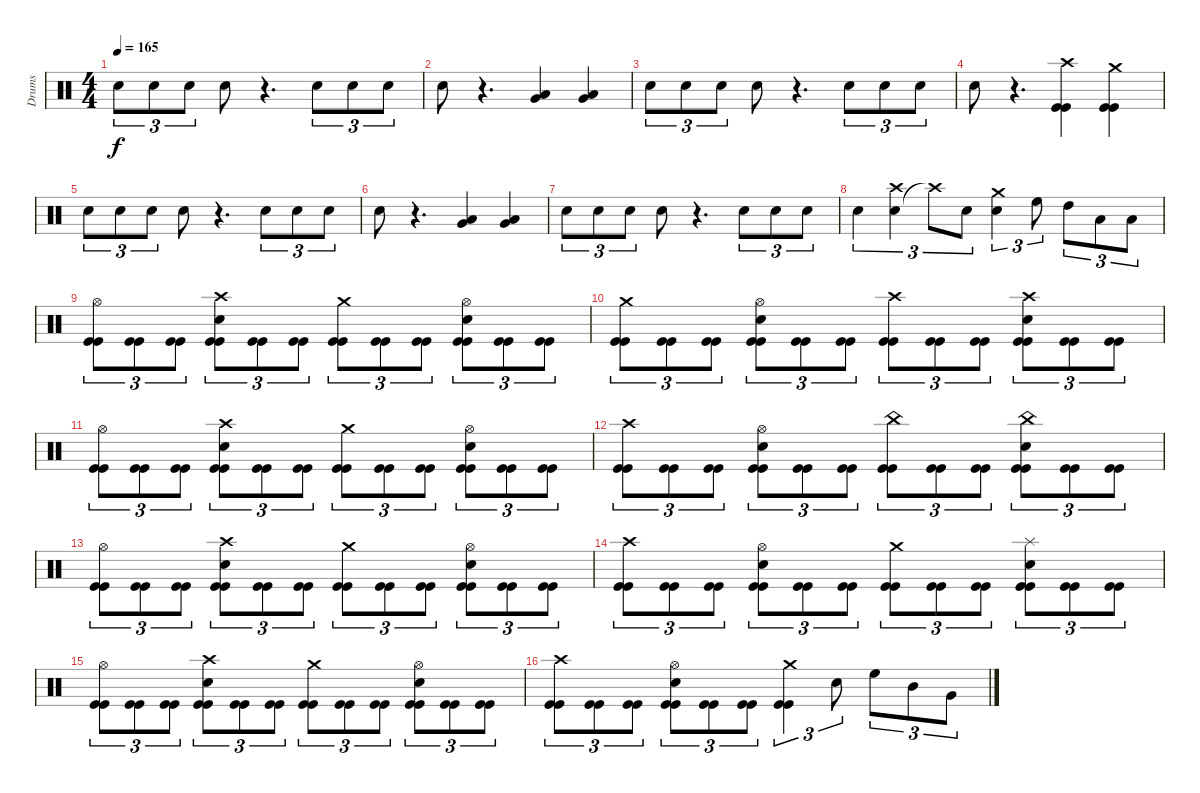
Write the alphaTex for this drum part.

\track ("Drums" "Drums") {instrument percussion}
\staff {score}
\articulation defaults
\ts (4 4)
\tempo 165
\clef neutral
\ks c "Snare (hit) 2".8{tu (3 2) dy f} "Snare (hit) 2".8{tu (3 2)} "Snare (hit) 2".8{tu (3 2)} "Snare (hit) 2".8
r.4{d} "Snare (hit) 2".8{tu (3 2)} "Snare (hit) 2".8{tu (3 2)} "Snare (hit) 2".8{tu (3 2)} |
"Snare (hit) 2".8 r.4{d} ("Low Floor Tom (hit)" "Very Low Tom (hit)").4 ("Very Low Tom (hit)" "Low Floor Tom (hit)").4 |
"Snare (hit) 2".8{tu (3 2)} "Snare (hit) 2".8{tu (3 2)} "Snare (hit) 2".8{tu (3 2)} "Snare (hit) 2".8 r.4{d} "Snare (hit) 2".8{tu (3 2)} "Snare (hit) 2".8{tu (3 2)} "Snare (hit) 2".8{tu (3 2)} |
"Snare (hit) 2".8 r.4{d} ("Kick (hit)" "Kick (hit)" "Crash high (hit)").4 ("Kick (hit)" "Kick (hit)" "Crash medium (hit)").4 |
"Snare (hit) 2".8{tu (3 2)} "Snare (hit) 2".8{tu (3 2)} "Snare (hit) 2".8{tu (3 2)} "Snare (hit) 2".8 r.4{d} "Snare (hit) 2".8{tu (3 2)} "Snare (hit) 2".8{tu (3 2)} "Snare (hit) 2".8{tu (3 2)} |
"Snare (hit) 2".8 r.4{d} ("Low Floor Tom (hit)" "Very Low Tom (hit)").4 ("Very Low Tom (hit)" "Low Floor Tom (hit)").4 |
"Snare (hit) 2".8{tu (3 2)} "Snare (hit) 2".8{tu (3 2)} "Snare (hit) 2".8{tu (3 2)} "Snare (hit) 2".8 r.4{d} "Snare (hit) 2".8{tu (3 2)} "Snare (hit) 2".8{tu (3 2)} "Snare (hit) 2".8{tu (3 2)} |
"Snare (hit) 2".4{tu (3 2)} ("Snare (hit) 2" "Crash high (hit)").4{tu (3 2)} "Crash high (hit)"{t}.8{tu (3 2)} "Snare (hit) 2".8{tu (3 2)} ("Snare (hit) 2" "Crash medium (hit)").4{tu (3 2)} "High Floor Tom (hit)".8{tu (3 2)} "High Tom (hit)".8{tu (3 2)} "Low Tom (hit)".8{tu (3 2)} "Low Floor Tom (hit)".8{tu (3 2)} |
("Kick (hit)" "Kick (hit)" "Hi-Hat (open)").8{tu (3 2)} ("Kick (hit)" "Kick (hit)").8{tu (3 2)} ("Kick (hit)" "Kick (hit)").8{tu (3 2)} ("Kick (hit)" "Kick (hit)" "Snare (hit) 2" "Crash high (hit)").8{tu (3 2)} ("Kick (hit)" "Kick (hit)").8{tu (3 2)} ("Kick (hit)" "Kick (hit)").8{tu (3 2)} ("Kick (hit)" "Kick (hit)" "Crash medium (hit)").8{tu (3 2)} ("Kick (hit)" "Kick (hit)").8{tu (3 2)} ("Kick (hit)" "Kick (hit)").8{tu (3 2)} ("Kick (hit)" "Kick (hit)" "Snare (hit) 2" "Hi-Hat (open)").8{tu (3 2)} ("Kick (hit)" "Kick (hit)").8{tu (3 2)} ("Kick (hit)" "Kick (hit)").8{tu (3 2)} |
("Kick (hit)" "Kick (hit)" "Crash medium (hit)").8{tu (3 2)} ("Kick (hit)" "Kick (hit)").8{tu (3 2)} ("Kick (hit)" "Kick (hit)").8{tu (3 2)} ("Kick (hit)" "Kick (hit)" "Snare (hit) 2" "Hi-Hat (open)").8{tu (3 2)} ("Kick (hit)" "Kick (hit)").8{tu (3 2)} ("Kick (hit)" "Kick (hit)").8{tu (3 2)} ("Kick (hit)" "Kick (hit)" "Crash high (hit)").8{tu (3 2)} ("Kick (hit)" "Kick (hit)").8{tu (3 2)} ("Kick (hit)" "Kick (hit)").8{tu (3 2)} ("Kick (hit)" "Kick (hit)" "Snare (hit) 2" "Crash high (hit)").8{tu (3 2)} ("Kick (hit)" "Kick (hit)").8{tu (3 2)} ("Kick (hit)" "Kick (hit)").8{tu (3 2)} |
("Kick (hit)" "Kick (hit)" "Hi-Hat (open)").8{tu (3 2)} ("Kick (hit)" "Kick (hit)").8{tu (3 2)} ("Kick (hit)" "Kick (hit)").8{tu (3 2)} ("Kick (hit)" "Kick (hit)" "Snare (hit) 2" "Crash high (hit)").8{tu (3 2)} ("Kick (hit)" "Kick (hit)").8{tu (3 2)} ("Kick (hit)" "Kick (hit)").8{tu (3 2)} ("Kick (hit)" "Kick (hit)" "Crash medium (hit)").8{tu (3 2)} ("Kick (hit)" "Kick (hit)").8{tu (3 2)} ("Kick (hit)" "Kick (hit)").8{tu (3 2)} ("Kick (hit)" "Kick (hit)" "Snare (hit) 2" "Hi-Hat (open)").8{tu (3 2)} ("Kick (hit)" "Kick (hit)").8{tu (3 2)} ("Kick (hit)" "Kick (hit)").8{tu (3 2)} |
("Kick (hit)" "Kick (hit)" "Crash high (hit)").8{tu (3 2)} ("Kick (hit)" "Kick (hit)").8{tu (3 2)} ("Kick (hit)" "Kick (hit)").8{tu (3 2)} ("Kick (hit)" "Kick (hit)" "Snare (hit) 2" "Hi-Hat (open)").8{tu (3 2)} ("Kick (hit)" "Kick (hit)").8{tu (3 2)} ("Kick (hit)" "Kick (hit)").8{tu (3 2)} ("Kick (hit)" "Kick (hit)" "China (hit)").8{tu (3 2)} ("Kick (hit)" "Kick (hit)").8{tu (3 2)} ("Kick (hit)" "Kick (hit)").8{tu (3 2)} ("Kick (hit)" "Kick (hit)" "Snare (hit) 2" "China (hit)").8{tu (3 2)} ("Kick (hit)" "Kick (hit)").8{tu (3 2)} ("Kick (hit)" "Kick (hit)").8{tu (3 2)} |
("Kick (hit)" "Kick (hit)" "Hi-Hat (open)").8{tu (3 2)} ("Kick (hit)" "Kick (hit)").8{tu (3 2)} ("Kick (hit)" "Kick (hit)").8{tu (3 2)} ("Kick (hit)" "Kick (hit)" "Snare (hit) 2" "Crash high (hit)").8{tu (3 2)} ("Kick (hit)" "Kick (hit)").8{tu (3 2)} ("Kick (hit)" "Kick (hit)").8{tu (3 2)} ("Kick (hit)" "Kick (hit)" "Crash medium (hit)").8{tu (3 2)} ("Kick (hit)" "Kick (hit)").8{tu (3 2)} ("Kick (hit)" "Kick (hit)").8{tu (3 2)} ("Kick (hit)" "Kick (hit)" "Snare (hit) 2" "Hi-Hat (open)").8{tu (3 2)} ("Kick (hit)" "Kick (hit)").8{tu (3 2)} ("Kick (hit)" "Kick (hit)").8{tu (3 2)} |
("Kick (hit)" "Kick (hit)" "Crash high (hit)").8{tu (3 2)} ("Kick (hit)" "Kick (hit)").8{tu (3 2)} ("Kick (hit)" "Kick (hit)").8{tu (3 2)} ("Kick (hit)" "Kick (hit)" "Snare (hit) 2" "Hi-Hat (open)").8{tu (3 2)} ("Kick (hit)" "Kick (hit)").8{tu (3 2)} ("Kick (hit)" "Kick (hit)").8{tu (3 2)} ("Kick (hit)" "Kick (hit)" "Crash medium (hit)").8{tu (3 2)} ("Kick (hit)" "Kick (hit)").8{tu (3 2)} ("Kick (hit)" "Kick (hit)").8{tu (3 2)} ("Kick (hit)" "Kick (hit)" "Snare (hit) 2" "Splash (hit)").8{tu (3 2)} ("Kick (hit)" "Kick (hit)").8{tu (3 2)} ("Kick (hit)" "Kick (hit)").8{tu (3 2)} |
("Kick (hit)" "Kick (hit)" "Hi-Hat (open)").8{tu (3 2)} ("Kick (hit)" "Kick (hit)").8{tu (3 2)} ("Kick (hit)" "Kick (hit)").8{tu (3 2)} ("Kick (hit)" "Kick (hit)" "Snare (hit) 2" "Crash high (hit)").8{tu (3 2)} ("Kick (hit)" "Kick (hit)").8{tu (3 2)} ("Kick (hit)" "Kick (hit)").8{tu (3 2)} ("Kick (hit)" "Kick (hit)" "Crash medium (hit)").8{tu (3 2)} ("Kick (hit)" "Kick (hit)").8{tu (3 2)} ("Kick (hit)" "Kick (hit)").8{tu (3 2)} ("Kick (hit)" "Kick (hit)" "Snare (hit) 2" "Hi-Hat (open)").8{tu (3 2)} ("Kick (hit)" "Kick (hit)").8{tu (3 2)} ("Kick (hit)" "Kick (hit)").8{tu (3 2)} |
("Kick (hit)" "Kick (hit)" "Crash high (hit)").8{tu (3 2)} ("Kick (hit)" "Kick (hit)").8{tu (3 2)} ("Kick (hit)" "Kick (hit)").8{tu (3 2)} ("Kick (hit)" "Kick (hit)" "Snare (hit) 2" "Hi-Hat (open)").8{tu (3 2)} ("Kick (hit)" "Kick (hit)").8{tu (3 2)} ("Kick (hit)" "Kick (hit)").8{tu (3 2)} ("Kick (hit)" "Kick (hit)" "Crash medium (hit)").4{tu (3 2)} "Snare (hit) 2".8{tu (3 2)} "High Floor Tom (hit)".8{tu (3 2)} "Mid Tom (hit)".8{tu (3 2)} "Very Low Tom (hit)".8{tu (3 2)}
